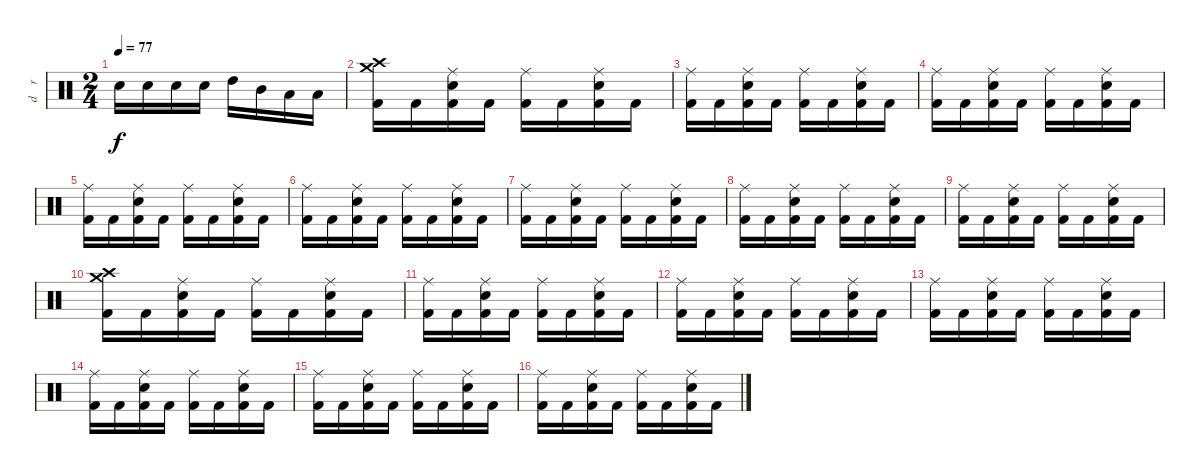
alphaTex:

\track ("d    r     u    m    s" "d    r    ") {instrument percussion}
\staff {score}
\articulation defaults
\ts (2 4)
\tempo 77
\clef neutral
\ks c "Electric Snare (hit)".16{dy f} "Electric Snare (hit)".16 "Electric Snare (hit)".16 "Electric Snare (hit)".16 "High Tom (hit)".16 "Mid Tom (hit)".16 "Low Tom (hit)".16 "Low Floor Tom (hit)".16
|
("Crash high (hit)" "Crash medium (hit)" "Kick (hit) 2").16 "Kick (hit) 2".16 ("Ride (middle)" "Electric Snare (hit)" "Kick (hit) 2").16 "Kick (hit) 2".16 ("Ride (middle)" "Kick (hit) 2").16 "Kick (hit) 2".16 ("Ride (middle)" "Electric Snare (hit)" "Kick (hit) 2").16 "Kick (hit) 2".16 |
("Ride (middle)" "Kick (hit) 2").16 "Kick (hit) 2".16 ("Ride (middle)" "Electric Snare (hit)" "Kick (hit) 2").16 "Kick (hit) 2".16 ("Ride (middle)" "Kick (hit) 2").16 "Kick (hit) 2".16 ("Ride (middle)" "Electric Snare (hit)" "Kick (hit) 2").16 "Kick (hit) 2".16 |
("Ride (middle)" "Kick (hit) 2").16 "Kick (hit) 2".16 ("Ride (middle)" "Electric Snare (hit)" "Kick (hit) 2").16 "Kick (hit) 2".16 ("Ride (middle)" "Kick (hit) 2").16 "Kick (hit) 2".16 ("Ride (middle)" "Electric Snare (hit)" "Kick (hit) 2").16 "Kick (hit) 2".16 |
("Ride (middle)" "Kick (hit) 2").16 "Kick (hit) 2".16 ("Ride (middle)" "Electric Snare (hit)" "Kick (hit) 2").16 "Kick (hit) 2".16 ("Ride (middle)" "Kick (hit) 2").16 "Kick (hit) 2".16 ("Ride (middle)" "Electric Snare (hit)" "Kick (hit) 2").16 "Kick (hit) 2".16 |
("Ride (middle)" "Kick (hit) 2").16 "Kick (hit) 2".16 ("Ride (middle)" "Electric Snare (hit)" "Kick (hit) 2").16 "Kick (hit) 2".16 ("Ride (middle)" "Kick (hit) 2").16 "Kick (hit) 2".16 ("Ride (middle)" "Electric Snare (hit)" "Kick (hit) 2").16 "Kick (hit) 2".16 |
("Ride (middle)" "Kick (hit) 2").16 "Kick (hit) 2".16 ("Ride (middle)" "Electric Snare (hit)" "Kick (hit) 2").16 "Kick (hit) 2".16 ("Ride (middle)" "Kick (hit) 2").16 "Kick (hit) 2".16 ("Ride (middle)" "Electric Snare (hit)" "Kick (hit) 2").16 "Kick (hit) 2".16 |
("Ride (middle)" "Kick (hit) 2").16 "Kick (hit) 2".16 ("Ride (middle)" "Electric Snare (hit)" "Kick (hit) 2").16 "Kick (hit) 2".16 ("Ride (middle)" "Kick (hit) 2").16 "Kick (hit) 2".16 ("Ride (middle)" "Electric Snare (hit)" "Kick (hit) 2").16 "Kick (hit) 2".16 |
("Ride (middle)" "Kick (hit) 2").16 "Kick (hit) 2".16 ("Ride (middle)" "Electric Snare (hit)" "Kick (hit) 2").16 "Kick (hit) 2".16 ("Ride (middle)" "Kick (hit) 2").16 "Kick (hit) 2".16 ("Ride (middle)" "Electric Snare (hit)" "Kick (hit) 2").16 "Kick (hit) 2".16 |
("Crash high (hit)" "Crash medium (hit)" "Kick (hit) 2").16 "Kick (hit) 2".16 ("Ride (middle)" "Electric Snare (hit)" "Kick (hit) 2").16 "Kick (hit) 2".16 ("Ride (middle)" "Kick (hit) 2").16 "Kick (hit) 2".16 ("Ride (middle)" "Electric Snare (hit)" "Kick (hit) 2").16 "Kick (hit) 2".16 |
("Ride (middle)" "Kick (hit) 2").16 "Kick (hit) 2".16 ("Ride (middle)" "Electric Snare (hit)" "Kick (hit) 2").16 "Kick (hit) 2".16 ("Ride (middle)" "Kick (hit) 2").16 "Kick (hit) 2".16 ("Ride (middle)" "Electric Snare (hit)" "Kick (hit) 2").16 "Kick (hit) 2".16 |
("Ride (middle)" "Kick (hit) 2").16 "Kick (hit) 2".16 ("Ride (middle)" "Electric Snare (hit)" "Kick (hit) 2").16 "Kick (hit) 2".16 ("Ride (middle)" "Kick (hit) 2").16 "Kick (hit) 2".16 ("Ride (middle)" "Electric Snare (hit)" "Kick (hit) 2").16 "Kick (hit) 2".16 |
("Ride (middle)" "Kick (hit) 2").16 "Kick (hit) 2".16 ("Ride (middle)" "Electric Snare (hit)" "Kick (hit) 2").16 "Kick (hit) 2".16 ("Ride (middle)" "Kick (hit) 2").16 "Kick (hit) 2".16 ("Ride (middle)" "Electric Snare (hit)" "Kick (hit) 2").16 "Kick (hit) 2".16 |
("Ride (middle)" "Kick (hit) 2").16 "Kick (hit) 2".16 ("Ride (middle)" "Electric Snare (hit)" "Kick (hit) 2").16 "Kick (hit) 2".16 ("Ride (middle)" "Kick (hit) 2").16 "Kick (hit) 2".16 ("Ride (middle)" "Electric Snare (hit)" "Kick (hit) 2").16 "Kick (hit) 2".16 |
("Ride (middle)" "Kick (hit) 2").16 "Kick (hit) 2".16 ("Ride (middle)" "Electric Snare (hit)" "Kick (hit) 2").16 "Kick (hit) 2".16 ("Ride (middle)" "Kick (hit) 2").16 "Kick (hit) 2".16 ("Ride (middle)" "Electric Snare (hit)" "Kick (hit) 2").16 "Kick (hit) 2".16 |
("Ride (middle)" "Kick (hit) 2").16 "Kick (hit) 2".16 ("Ride (middle)" "Electric Snare (hit)" "Kick (hit) 2").16 "Kick (hit) 2".16 ("Ride (middle)" "Kick (hit) 2").16 "Kick (hit) 2".16 ("Ride (middle)" "Electric Snare (hit)" "Kick (hit) 2").16 "Kick (hit) 2".16
